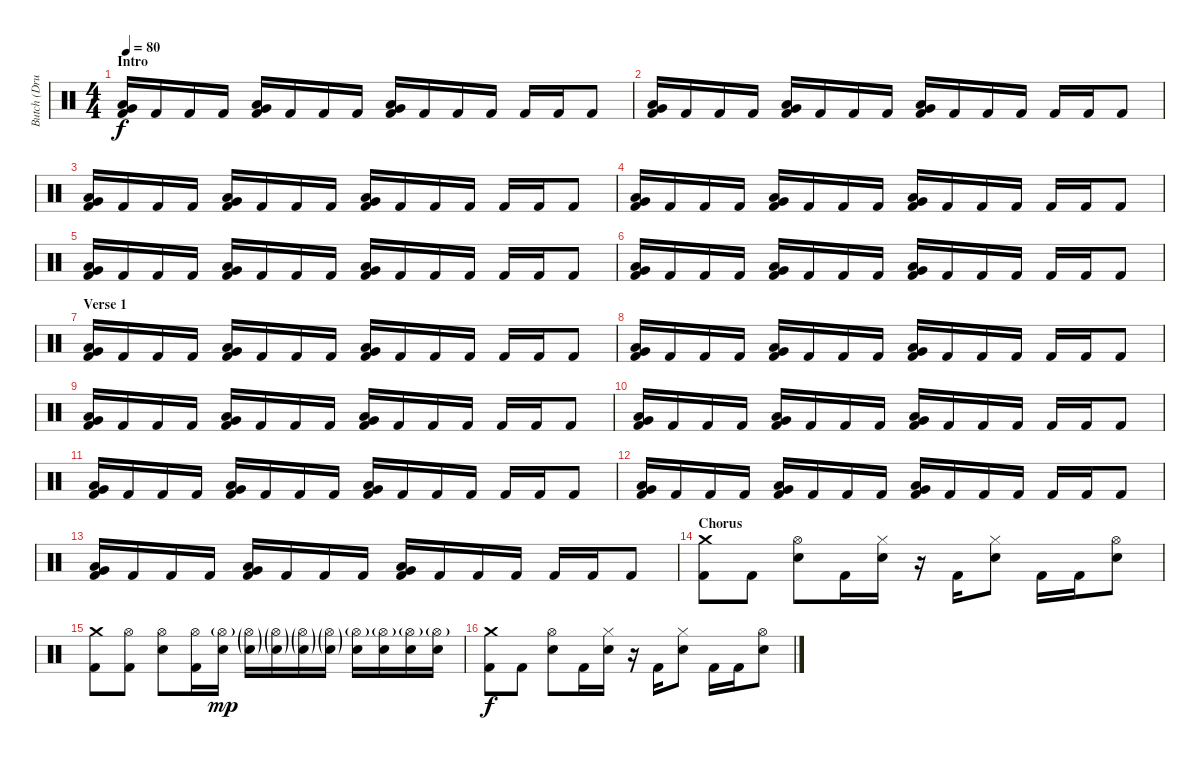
\track ("Butch (Drums)" "Butch (Dru") {instrument percussion}
\staff {score}
\articulation defaults
\ts (4 4)
\section ("" "Intro")
\tempo 80
\clef neutral
\ks c
("Low Floor Tom (hit)" "Very Low Tom (hit)" "Kick (hit) 2").16{dy f} "Kick (hit) 2".16 "Kick (hit) 2".16 "Kick (hit) 2".16 ("Low Floor Tom (hit)" "Very Low Tom (hit)" "Kick (hit) 2").16 "Kick (hit) 2".16 "Kick (hit) 2".16 "Kick (hit) 2".16 ("Low Floor Tom (hit)" "Very Low Tom (hit)" "Kick (hit) 2").16 "Kick (hit) 2".16 "Kick (hit) 2".16 "Kick (hit) 2".16 "Kick (hit) 2".16 "Kick (hit) 2".16 "Kick (hit) 2".8 |
("Low Floor Tom (hit)" "Very Low Tom (hit)" "Kick (hit) 2").16 "Kick (hit) 2".16 "Kick (hit) 2".16 "Kick (hit) 2".16 ("Low Floor Tom (hit)" "Very Low Tom (hit)" "Kick (hit) 2").16 "Kick (hit) 2".16 "Kick (hit) 2".16 "Kick (hit) 2".16 ("Low Floor Tom (hit)" "Very Low Tom (hit)" "Kick (hit) 2").16 "Kick (hit) 2".16 "Kick (hit) 2".16 "Kick (hit) 2".16 "Kick (hit) 2".16 "Kick (hit) 2".16 "Kick (hit) 2".8 |
("Low Floor Tom (hit)" "Very Low Tom (hit)" "Kick (hit) 2").16 "Kick (hit) 2".16 "Kick (hit) 2".16 "Kick (hit) 2".16 ("Low Floor Tom (hit)" "Very Low Tom (hit)" "Kick (hit) 2").16 "Kick (hit) 2".16 "Kick (hit) 2".16 "Kick (hit) 2".16 ("Low Floor Tom (hit)" "Very Low Tom (hit)" "Kick (hit) 2").16 "Kick (hit) 2".16 "Kick (hit) 2".16 "Kick (hit) 2".16 "Kick (hit) 2".16 "Kick (hit) 2".16 "Kick (hit) 2".8 |
("Low Floor Tom (hit)" "Very Low Tom (hit)" "Kick (hit) 2").16 "Kick (hit) 2".16 "Kick (hit) 2".16 "Kick (hit) 2".16 ("Low Floor Tom (hit)" "Very Low Tom (hit)" "Kick (hit) 2").16 "Kick (hit) 2".16 "Kick (hit) 2".16 "Kick (hit) 2".16 ("Low Floor Tom (hit)" "Very Low Tom (hit)" "Kick (hit) 2").16 "Kick (hit) 2".16 "Kick (hit) 2".16 "Kick (hit) 2".16 "Kick (hit) 2".16 "Kick (hit) 2".16 "Kick (hit) 2".8 |
("Low Floor Tom (hit)" "Very Low Tom (hit)" "Kick (hit) 2").16 "Kick (hit) 2".16 "Kick (hit) 2".16 "Kick (hit) 2".16 ("Low Floor Tom (hit)" "Very Low Tom (hit)" "Kick (hit) 2").16 "Kick (hit) 2".16 "Kick (hit) 2".16 "Kick (hit) 2".16 ("Low Floor Tom (hit)" "Very Low Tom (hit)" "Kick (hit) 2").16 "Kick (hit) 2".16 "Kick (hit) 2".16 "Kick (hit) 2".16 "Kick (hit) 2".16 "Kick (hit) 2".16 "Kick (hit) 2".8 |
("Low Floor Tom (hit)" "Very Low Tom (hit)" "Kick (hit) 2").16 "Kick (hit) 2".16 "Kick (hit) 2".16 "Kick (hit) 2".16 ("Low Floor Tom (hit)" "Very Low Tom (hit)" "Kick (hit) 2").16 "Kick (hit) 2".16 "Kick (hit) 2".16 "Kick (hit) 2".16 ("Low Floor Tom (hit)" "Very Low Tom (hit)" "Kick (hit) 2").16 "Kick (hit) 2".16 "Kick (hit) 2".16 "Kick (hit) 2".16 "Kick (hit) 2".16 "Kick (hit) 2".16 "Kick (hit) 2".8 |
\section ("" "Verse 1")
("Low Floor Tom (hit)" "Very Low Tom (hit)" "Kick (hit) 2").16 "Kick (hit) 2".16 "Kick (hit) 2".16 "Kick (hit) 2".16 ("Low Floor Tom (hit)" "Very Low Tom (hit)" "Kick (hit) 2").16 "Kick (hit) 2".16 "Kick (hit) 2".16 "Kick (hit) 2".16 ("Low Floor Tom (hit)" "Very Low Tom (hit)" "Kick (hit) 2").16 "Kick (hit) 2".16 "Kick (hit) 2".16 "Kick (hit) 2".16 "Kick (hit) 2".16 "Kick (hit) 2".16 "Kick (hit) 2".8 |
("Low Floor Tom (hit)" "Very Low Tom (hit)" "Kick (hit) 2").16 "Kick (hit) 2".16 "Kick (hit) 2".16 "Kick (hit) 2".16 ("Low Floor Tom (hit)" "Very Low Tom (hit)" "Kick (hit) 2").16 "Kick (hit) 2".16 "Kick (hit) 2".16 "Kick (hit) 2".16 ("Low Floor Tom (hit)" "Very Low Tom (hit)" "Kick (hit) 2").16 "Kick (hit) 2".16 "Kick (hit) 2".16 "Kick (hit) 2".16 "Kick (hit) 2".16 "Kick (hit) 2".16 "Kick (hit) 2".8 |
("Low Floor Tom (hit)" "Very Low Tom (hit)" "Kick (hit) 2").16 "Kick (hit) 2".16 "Kick (hit) 2".16 "Kick (hit) 2".16 ("Low Floor Tom (hit)" "Very Low Tom (hit)" "Kick (hit) 2").16 "Kick (hit) 2".16 "Kick (hit) 2".16 "Kick (hit) 2".16 ("Low Floor Tom (hit)" "Very Low Tom (hit)" "Kick (hit) 2").16 "Kick (hit) 2".16 "Kick (hit) 2".16 "Kick (hit) 2".16 "Kick (hit) 2".16 "Kick (hit) 2".16 "Kick (hit) 2".8 |
("Low Floor Tom (hit)" "Very Low Tom (hit)" "Kick (hit) 2").16 "Kick (hit) 2".16 "Kick (hit) 2".16 "Kick (hit) 2".16 ("Low Floor Tom (hit)" "Very Low Tom (hit)" "Kick (hit) 2").16 "Kick (hit) 2".16 "Kick (hit) 2".16 "Kick (hit) 2".16 ("Low Floor Tom (hit)" "Very Low Tom (hit)" "Kick (hit) 2").16 "Kick (hit) 2".16 "Kick (hit) 2".16 "Kick (hit) 2".16 "Kick (hit) 2".16 "Kick (hit) 2".16 "Kick (hit) 2".8 |
("Low Floor Tom (hit)" "Very Low Tom (hit)" "Kick (hit) 2").16 "Kick (hit) 2".16 "Kick (hit) 2".16 "Kick (hit) 2".16 ("Low Floor Tom (hit)" "Very Low Tom (hit)" "Kick (hit) 2").16 "Kick (hit) 2".16 "Kick (hit) 2".16 "Kick (hit) 2".16 ("Low Floor Tom (hit)" "Very Low Tom (hit)" "Kick (hit) 2").16 "Kick (hit) 2".16 "Kick (hit) 2".16 "Kick (hit) 2".16 "Kick (hit) 2".16 "Kick (hit) 2".16 "Kick (hit) 2".8 |
("Low Floor Tom (hit)" "Very Low Tom (hit)" "Kick (hit) 2").16 "Kick (hit) 2".16 "Kick (hit) 2".16 "Kick (hit) 2".16 ("Low Floor Tom (hit)" "Very Low Tom (hit)" "Kick (hit) 2").16 "Kick (hit) 2".16 "Kick (hit) 2".16 "Kick (hit) 2".16 ("Low Floor Tom (hit)" "Very Low Tom (hit)" "Kick (hit) 2").16 "Kick (hit) 2".16 "Kick (hit) 2".16 "Kick (hit) 2".16 "Kick (hit) 2".16 "Kick (hit) 2".16 "Kick (hit) 2".8 |
("Low Floor Tom (hit)" "Very Low Tom (hit)" "Kick (hit) 2").16 "Kick (hit) 2".16 "Kick (hit) 2".16 "Kick (hit) 2".16 ("Low Floor Tom (hit)" "Very Low Tom (hit)" "Kick (hit) 2").16 "Kick (hit) 2".16 "Kick (hit) 2".16 "Kick (hit) 2".16 ("Low Floor Tom (hit)" "Very Low Tom (hit)" "Kick (hit) 2").16 "Kick (hit) 2".16 "Kick (hit) 2".16 "Kick (hit) 2".16 "Kick (hit) 2".16 "Kick (hit) 2".16 "Kick (hit) 2".8 |
\section ("" "Chorus")
("Crash medium (hit)" "Kick (hit) 2").8 "Kick (hit) 2".8 ("Hi-Hat (open)" "Electric Snare (hit)").8 "Kick (hit) 2".16 ("Hi-Hat (closed)" "Electric Snare (hit)").16 r.16 "Kick (hit) 2".16 ("Hi-Hat (closed)" "Electric Snare (hit)").8 "Kick (hit) 2".16 "Kick (hit) 2".16 ("Hi-Hat (open)" "Electric Snare (hit)").8 |
("Crash medium (hit)" "Kick (hit) 2").8 ("Hi-Hat (open)" "Kick (hit) 2").8 ("Hi-Hat (open)" "Electric Snare (hit)").8 ("Hi-Hat (open)" "Kick (hit) 2").16 ("Hi-Hat (open)"{g} "Electric Snare (hit)").16{dy mp} ("Hi-Hat (open)"{g} "Electric Snare (hit)"{g}).16 ("Hi-Hat (open)"{g} "Electric Snare (hit)"{g}).16 ("Hi-Hat (open)"{g} "Electric Snare (hit)"{g}).16 ("Hi-Hat (open)"{g} "Electric Snare (hit)"{g}).16 ("Hi-Hat (open)"{g} "Electric Snare (hit)").16 ("Hi-Hat (open)"{g} "Electric Snare (hit)").16 ("Hi-Hat (open)"{g} "Electric Snare (hit)").16 ("Hi-Hat (open)"{g} "Electric Snare (hit)").16 |
("Crash medium (hit)" "Kick (hit) 2").8{dy f} "Kick (hit) 2".8 ("Hi-Hat (open)" "Electric Snare (hit)").8 "Kick (hit) 2".16 ("Hi-Hat (closed)" "Electric Snare (hit)").16 r.16 "Kick (hit) 2".16 ("Hi-Hat (closed)" "Electric Snare (hit)").8 "Kick (hit) 2".16 "Kick (hit) 2".16 ("Hi-Hat (open)" "Electric Snare (hit)").8
